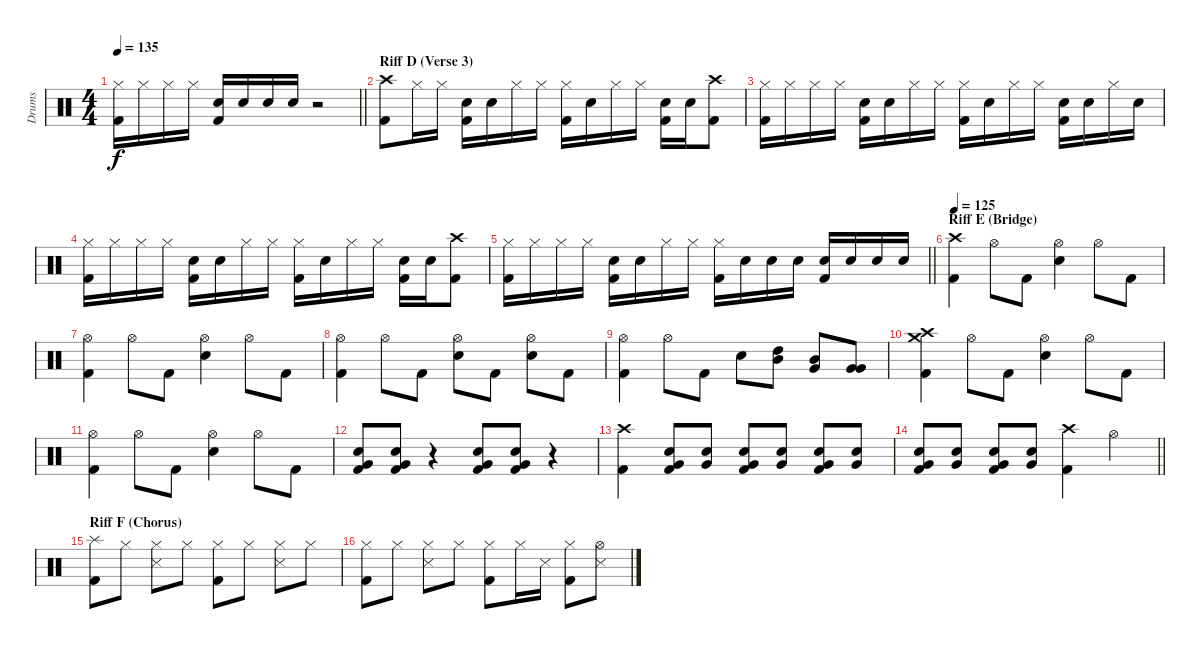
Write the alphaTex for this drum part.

\track ("Drums" "Drums") {instrument percussion}
\staff {score}
\articulation defaults
\ts (4 4)
\tempo 135
\clef neutral
\barLineRight lightlight
\ks c
("Hi-Hat (closed)" "Kick (hit) 2").16{dy f} "Hi-Hat (closed)".16 "Hi-Hat (closed)".16 "Hi-Hat (closed)".16 ("Snare (hit) 2" "Kick (hit) 2").16 "Snare (hit) 2".16 "Snare (hit) 2".16 "Snare (hit) 2".16 r.2 |
\section ("" "Riff D (Verse 3)")
("Crash high (hit)" "Kick (hit) 2").8 "Hi-Hat (closed)".16 "Hi-Hat (closed)".16 ("Snare (hit) 2" "Kick (hit) 2").16 "Snare (hit) 2".16 "Hi-Hat (closed)".16 "Hi-Hat (closed)".16 ("Hi-Hat (closed)" "Kick (hit) 2").16 "Snare (hit) 2".16 "Hi-Hat (closed)".16 "Hi-Hat (closed)".16 ("Snare (hit) 2" "Kick (hit) 2").16 "Snare (hit) 2".16 ("Crash high (hit)" "Kick (hit) 2").8 |
("Hi-Hat (closed)" "Kick (hit) 2").16 "Hi-Hat (closed)".16 "Hi-Hat (closed)".16 "Hi-Hat (closed)".16 ("Snare (hit) 2" "Kick (hit) 2").16 "Snare (hit) 2".16 "Hi-Hat (closed)".16 "Hi-Hat (closed)".16 ("Hi-Hat (closed)" "Kick (hit) 2").16 "Snare (hit) 2".16 "Hi-Hat (closed)".16 "Hi-Hat (closed)".16 ("Snare (hit) 2" "Kick (hit) 2").16 "Snare (hit) 2".16 "Hi-Hat (closed)".16 "Snare (hit) 2".16 |
("Hi-Hat (closed)" "Kick (hit) 2").16 "Hi-Hat (closed)".16 "Hi-Hat (closed)".16 "Hi-Hat (closed)".16 ("Snare (hit) 2" "Kick (hit) 2").16 "Snare (hit) 2".16 "Hi-Hat (closed)".16 "Hi-Hat (closed)".16 ("Hi-Hat (closed)" "Kick (hit) 2").16 "Snare (hit) 2".16 "Hi-Hat (closed)".16 "Hi-Hat (closed)".16 ("Snare (hit) 2" "Kick (hit) 2").16 "Snare (hit) 2".16 ("Crash high (hit)" "Kick (hit) 2").8 |
\barLineRight lightlight
("Hi-Hat (closed)" "Kick (hit) 2").16 "Hi-Hat (closed)".16 "Hi-Hat (closed)".16 "Hi-Hat (closed)".16 ("Snare (hit) 2" "Kick (hit) 2").16 "Snare (hit) 2".16 "Hi-Hat (closed)".16 "Hi-Hat (closed)".16 ("Hi-Hat (closed)" "Kick (hit) 2").16 "Snare (hit) 2".16 "Snare (hit) 2".16 "Snare (hit) 2".16 ("Snare (hit) 2" "Kick (hit) 2").16 "Snare (hit) 2".16 "Snare (hit) 2".16 "Snare (hit) 2".16 |
\section ("" "Riff E (Bridge)")
\tempo 125
("Crash high (hit)" "Kick (hit) 2").4 "Hi-Hat (open)".8 "Kick (hit) 2".8 ("Hi-Hat (open)" "Snare (hit) 2").4 "Hi-Hat (open)".8 "Kick (hit) 2".8 |
("Hi-Hat (open)" "Kick (hit) 2").4 "Hi-Hat (open)".8 "Kick (hit) 2".8 ("Hi-Hat (open)" "Snare (hit) 2").4 "Hi-Hat (open)".8 "Kick (hit) 2".8 |
("Hi-Hat (open)" "Kick (hit) 2").4 "Hi-Hat (open)".8 "Kick (hit) 2".8 ("Hi-Hat (open)" "Snare (hit) 2").8 "Kick (hit) 2".8 ("Hi-Hat (open)" "Snare (hit) 2").8 "Kick (hit) 2".8 |
("Hi-Hat (open)" "Kick (hit) 2").4 "Hi-Hat (open)".8 "Kick (hit) 2".8 "Snare (hit) 2".8 ("High Tom (hit)" "Mid Tom (hit)").8 ("Mid Tom (hit)" "Very Low Tom (hit)").8 ("Very Low Tom (hit)" "Very Low Tom (hit)").8 |
("Crash high (hit)" "Crash medium (hit)" "Kick (hit) 2").4 "Hi-Hat (open)".8 "Kick (hit) 2".8 ("Hi-Hat (open)" "Snare (hit) 2").4 "Hi-Hat (open)".8 "Kick (hit) 2".8 |
("Hi-Hat (open)" "Kick (hit) 2").4 "Hi-Hat (open)".8 "Kick (hit) 2".8 ("Hi-Hat (open)" "Snare (hit) 2").4 "Hi-Hat (open)".8 "Kick (hit) 2".8 |
("Very Low Tom (hit)" "Snare (hit) 2" "Kick (hit) 2").8 ("Very Low Tom (hit)" "Snare (hit) 2" "Kick (hit) 2").8 r.4 ("Very Low Tom (hit)" "Snare (hit) 2" "Kick (hit) 2").8 ("Very Low Tom (hit)" "Snare (hit) 2" "Kick (hit) 2").8 r.4 |
("Crash high (hit)" "Kick (hit) 2").4 ("Very Low Tom (hit)" "Snare (hit) 2" "Kick (hit) 2").8 ("Very Low Tom (hit)" "Snare (hit) 2").8 ("Very Low Tom (hit)" "Snare (hit) 2" "Kick (hit) 2").8 ("Very Low Tom (hit)" "Snare (hit) 2").8 ("Very Low Tom (hit)" "Snare (hit) 2" "Kick (hit) 2").8 ("Very Low Tom (hit)" "Snare (hit) 2").8 |
\barLineRight lightlight
("Very Low Tom (hit)" "Snare (hit) 2" "Kick (hit) 2").8 ("Very Low Tom (hit)" "Snare (hit) 2").8 ("Very Low Tom (hit)" "Snare (hit) 2" "Kick (hit) 2").8 ("Very Low Tom (hit)" "Snare (hit) 2").8 ("Crash high (hit)" "Kick (hit) 2").4 "Hi-Hat (open)".4 |
\section ("" "Riff F (Chorus)")
("Splash (hit)" "Kick (hit) 2").8 "Hi-Hat (closed)".8 ("Hi-Hat (closed)" "Snare (side stick) 3").8 "Hi-Hat (closed)".8 ("Hi-Hat (closed)" "Kick (hit) 2").8 "Hi-Hat (closed)".8 ("Hi-Hat (closed)" "Snare (side stick) 3").8 "Hi-Hat (closed)".8 |
("Hi-Hat (closed)" "Kick (hit) 2").8 "Hi-Hat (closed)".8 ("Hi-Hat (closed)" "Snare (side stick) 3").8 "Hi-Hat (closed)".8 ("Hi-Hat (closed)" "Kick (hit) 2").8 "Hi-Hat (closed)".16 "Snare (side stick) 3".16 ("Hi-Hat (closed)" "Kick (hit) 2").8 ("Hi-Hat (open)" "Snare (side stick) 3").8
